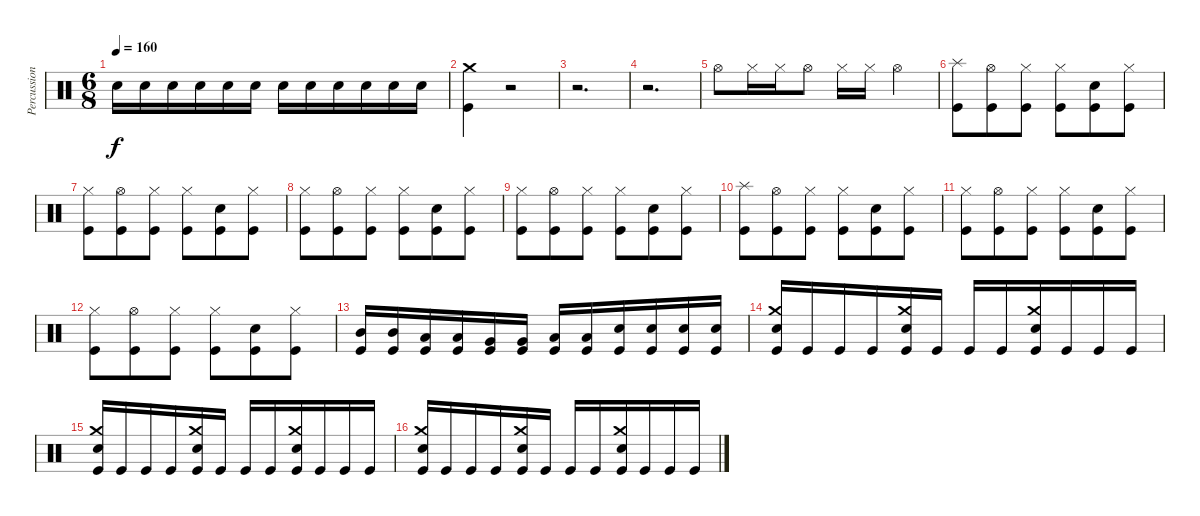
\track ("Percussion" "Percussion") {instrument percussion}
\staff {score}
\articulation defaults
\ts (6 8)
\tempo 160
\clef neutral
\ks c "Snare (hit) 2".16{dy f} "Snare (hit) 2".16 "Snare (hit) 2".16 "Snare (hit) 2".16 "Snare (hit) 2".16 "Snare (hit) 2".16 "Snare (hit) 2".16 "Snare (hit) 2".16 "Snare (hit) 2".16 "Snare (hit) 2".16 "Snare (hit) 2".16 "Snare (hit) 2".16
|
("Crash medium (hit)" "Kick (hit)").4 r.2 |
r.2{d} |
r.2{d} |
"Hi-Hat (open)".8 "Hi-Hat (closed)".16 "Hi-Hat (closed)".16 "Hi-Hat (open)".8 "Hi-Hat (closed)".16 "Hi-Hat (closed)".16 "Hi-Hat (open)".4 |
("Splash (hit)" "Kick (hit)").8 ("Hi-Hat (open)" "Kick (hit)").8 ("Hi-Hat (closed)" "Kick (hit)").8 ("Hi-Hat (closed)" "Kick (hit)").8 ("Snare (hit) 2" "Kick (hit)").8 ("Hi-Hat (closed)" "Kick (hit)").8 |
("Hi-Hat (closed)" "Kick (hit)").8 ("Hi-Hat (open)" "Kick (hit)").8 ("Hi-Hat (closed)" "Kick (hit)").8 ("Hi-Hat (closed)" "Kick (hit)").8 ("Snare (hit) 2" "Kick (hit)").8 ("Hi-Hat (closed)" "Kick (hit)").8 |
("Hi-Hat (closed)" "Kick (hit)").8 ("Hi-Hat (open)" "Kick (hit)").8 ("Hi-Hat (closed)" "Kick (hit)").8 ("Hi-Hat (closed)" "Kick (hit)").8 ("Snare (hit) 2" "Kick (hit)").8 ("Hi-Hat (closed)" "Kick (hit)").8 |
("Hi-Hat (closed)" "Kick (hit)").8 ("Hi-Hat (open)" "Kick (hit)").8 ("Hi-Hat (closed)" "Kick (hit)").8 ("Hi-Hat (closed)" "Kick (hit)").8 ("Snare (hit) 2" "Kick (hit)").8 ("Hi-Hat (closed)" "Kick (hit)").8 |
("Splash (hit)" "Kick (hit)").8 ("Hi-Hat (open)" "Kick (hit)").8 ("Hi-Hat (closed)" "Kick (hit)").8 ("Hi-Hat (closed)" "Kick (hit)").8 ("Snare (hit) 2" "Kick (hit)").8 ("Hi-Hat (closed)" "Kick (hit)").8 |
("Hi-Hat (closed)" "Kick (hit)").8 ("Hi-Hat (open)" "Kick (hit)").8 ("Hi-Hat (closed)" "Kick (hit)").8 ("Hi-Hat (closed)" "Kick (hit)").8 ("Snare (hit) 2" "Kick (hit)").8 ("Hi-Hat (closed)" "Kick (hit)").8 |
("Hi-Hat (closed)" "Kick (hit)").8 ("Hi-Hat (open)" "Kick (hit)").8 ("Hi-Hat (closed)" "Kick (hit)").8 ("Hi-Hat (closed)" "Kick (hit)").8 ("Snare (hit) 2" "Kick (hit)").8 ("Hi-Hat (closed)" "Kick (hit)").8 |
("Mid Tom (hit)" "Kick (hit)").16 ("Mid Tom (hit)" "Kick (hit)").16 ("Low Tom (hit)" "Kick (hit)").16 ("Low Tom (hit)" "Kick (hit)").16 ("Very Low Tom (hit)" "Kick (hit)").16 ("Very Low Tom (hit)" "Kick (hit)").16 ("Low Floor Tom (hit)" "Kick (hit)").16 ("Low Floor Tom (hit)" "Kick (hit)").16 ("Snare (hit) 2" "Kick (hit)").16 ("Snare (hit) 2" "Kick (hit)").16 ("Snare (hit) 2" "Kick (hit)").16 ("Snare (hit) 2" "Kick (hit)").16 |
("Crash medium (hit)" "Snare (hit) 2" "Kick (hit)").16 "Kick (hit)".16 "Kick (hit)".16 "Kick (hit)".16 ("Crash medium (hit)" "Snare (hit) 2" "Kick (hit)").16 "Kick (hit)".16 "Kick (hit)".16 "Kick (hit)".16 ("Crash medium (hit)" "Snare (hit) 2" "Kick (hit)").16 "Kick (hit)".16 "Kick (hit)".16 "Kick (hit)".16 |
("Crash medium (hit)" "Snare (hit) 2" "Kick (hit)").16 "Kick (hit)".16 "Kick (hit)".16 "Kick (hit)".16 ("Crash medium (hit)" "Snare (hit) 2" "Kick (hit)").16 "Kick (hit)".16 "Kick (hit)".16 "Kick (hit)".16 ("Crash medium (hit)" "Snare (hit) 2" "Kick (hit)").16 "Kick (hit)".16 "Kick (hit)".16 "Kick (hit)".16 |
("Crash medium (hit)" "Snare (hit) 2" "Kick (hit)").16 "Kick (hit)".16 "Kick (hit)".16 "Kick (hit)".16 ("Crash medium (hit)" "Snare (hit) 2" "Kick (hit)").16 "Kick (hit)".16 "Kick (hit)".16 "Kick (hit)".16 ("Crash medium (hit)" "Snare (hit) 2" "Kick (hit)").16 "Kick (hit)".16 "Kick (hit)".16 "Kick (hit)".16
